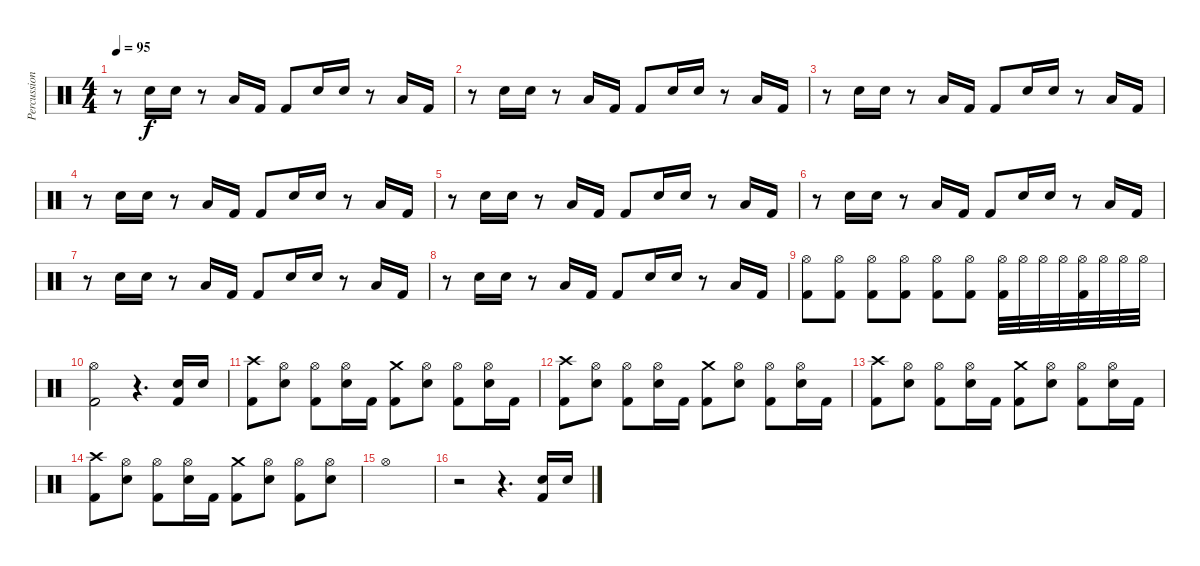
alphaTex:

\track ("Percussion" "Percussion") {instrument percussion}
\staff {score}
\articulation defaults
\ts (4 4)
\tempo 95
\clef neutral
\ks c
r.8{dy f} "Electric Snare (hit)".16 "Electric Snare (hit)".16 r.8 "Low Floor Tom (hit)".16 "Kick (hit) 2".16 "Kick (hit) 2".8 "Electric Snare (hit)".16 "Electric Snare (hit)".16 r.8 "Low Floor Tom (hit)".16 "Kick (hit) 2".16 |
r.8 "Electric Snare (hit)".16 "Electric Snare (hit)".16 r.8 "Low Floor Tom (hit)".16 "Kick (hit) 2".16 "Kick (hit) 2".8 "Electric Snare (hit)".16 "Electric Snare (hit)".16 r.8 "Low Floor Tom (hit)".16 "Kick (hit) 2".16 |
r.8 "Electric Snare (hit)".16 "Electric Snare (hit)".16 r.8 "Low Floor Tom (hit)".16 "Kick (hit) 2".16 "Kick (hit) 2".8 "Electric Snare (hit)".16 "Electric Snare (hit)".16 r.8 "Low Floor Tom (hit)".16 "Kick (hit) 2".16 |
r.8 "Electric Snare (hit)".16 "Electric Snare (hit)".16 r.8 "Low Floor Tom (hit)".16 "Kick (hit) 2".16 "Kick (hit) 2".8 "Electric Snare (hit)".16 "Electric Snare (hit)".16 r.8 "Low Floor Tom (hit)".16 "Kick (hit) 2".16 |
r.8 "Electric Snare (hit)".16 "Electric Snare (hit)".16 r.8 "Low Floor Tom (hit)".16 "Kick (hit) 2".16 "Kick (hit) 2".8 "Electric Snare (hit)".16 "Electric Snare (hit)".16 r.8 "Low Floor Tom (hit)".16 "Kick (hit) 2".16 |
r.8 "Electric Snare (hit)".16 "Electric Snare (hit)".16 r.8 "Low Floor Tom (hit)".16 "Kick (hit) 2".16 "Kick (hit) 2".8 "Electric Snare (hit)".16 "Electric Snare (hit)".16 r.8 "Low Floor Tom (hit)".16 "Kick (hit) 2".16 |
r.8 "Electric Snare (hit)".16 "Electric Snare (hit)".16 r.8 "Low Floor Tom (hit)".16 "Kick (hit) 2".16 "Kick (hit) 2".8 "Electric Snare (hit)".16 "Electric Snare (hit)".16 r.8 "Low Floor Tom (hit)".16 "Kick (hit) 2".16 |
r.8 "Electric Snare (hit)".16 "Electric Snare (hit)".16 r.8 "Low Floor Tom (hit)".16 "Kick (hit) 2".16 "Kick (hit) 2".8 "Electric Snare (hit)".16 "Electric Snare (hit)".16 r.8 "Low Floor Tom (hit)".16 "Kick (hit) 2".16 |
("Hi-Hat (open)" "Kick (hit) 2").8 ("Hi-Hat (open)" "Kick (hit) 2").8 ("Hi-Hat (open)" "Kick (hit) 2").8 ("Hi-Hat (open)" "Kick (hit) 2").8 ("Hi-Hat (open)" "Kick (hit) 2").8 ("Hi-Hat (open)" "Kick (hit) 2").8 ("Hi-Hat (open)" "Kick (hit) 2").32 "Hi-Hat (open)".32 "Hi-Hat (open)".32 "Hi-Hat (open)".32 ("Hi-Hat (open)" "Kick (hit) 2").32 "Hi-Hat (open)".32 "Hi-Hat (open)".32 "Hi-Hat (open)".32 |
("Hi-Hat (open)" "Kick (hit) 2").2 r.4{d} ("Electric Snare (hit)" "Kick (hit) 2").16 "Electric Snare (hit)".16 |
("Crash high (hit)" "Kick (hit) 2").8 ("Hi-Hat (open)" "Electric Snare (hit)").8 ("Hi-Hat (open)" "Kick (hit) 2").8 ("Hi-Hat (open)" "Electric Snare (hit)").16 "Kick (hit) 2".16 ("Crash medium (hit)" "Kick (hit) 2").8 ("Hi-Hat (open)" "Electric Snare (hit)").8 ("Hi-Hat (open)" "Kick (hit) 2").8 ("Hi-Hat (open)" "Electric Snare (hit)").16 "Kick (hit) 2".16 |
("Crash high (hit)" "Kick (hit) 2").8 ("Hi-Hat (open)" "Electric Snare (hit)").8 ("Hi-Hat (open)" "Kick (hit) 2").8 ("Hi-Hat (open)" "Electric Snare (hit)").16 "Kick (hit) 2".16 ("Crash medium (hit)" "Kick (hit) 2").8 ("Hi-Hat (open)" "Electric Snare (hit)").8 ("Hi-Hat (open)" "Kick (hit) 2").8 ("Hi-Hat (open)" "Electric Snare (hit)").16 "Kick (hit) 2".16 |
("Crash high (hit)" "Kick (hit) 2").8 ("Hi-Hat (open)" "Electric Snare (hit)").8 ("Hi-Hat (open)" "Kick (hit) 2").8 ("Hi-Hat (open)" "Electric Snare (hit)").16 "Kick (hit) 2".16 ("Crash medium (hit)" "Kick (hit) 2").8 ("Hi-Hat (open)" "Electric Snare (hit)").8 ("Hi-Hat (open)" "Kick (hit) 2").8 ("Hi-Hat (open)" "Electric Snare (hit)").16 "Kick (hit) 2".16 |
("Crash high (hit)" "Kick (hit) 2").8 ("Hi-Hat (open)" "Electric Snare (hit)").8 ("Hi-Hat (open)" "Kick (hit) 2").8 ("Hi-Hat (open)" "Electric Snare (hit)").16 "Kick (hit) 2".16 ("Crash medium (hit)" "Kick (hit) 2").8 ("Hi-Hat (open)" "Electric Snare (hit)").8 ("Hi-Hat (open)" "Kick (hit) 2").8 ("Hi-Hat (open)" "Electric Snare (hit)").8 |
"Hi-Hat (open)".1 |
r.2 r.4{d} ("Electric Snare (hit)" "Kick (hit) 2").16 "Electric Snare (hit)".16
